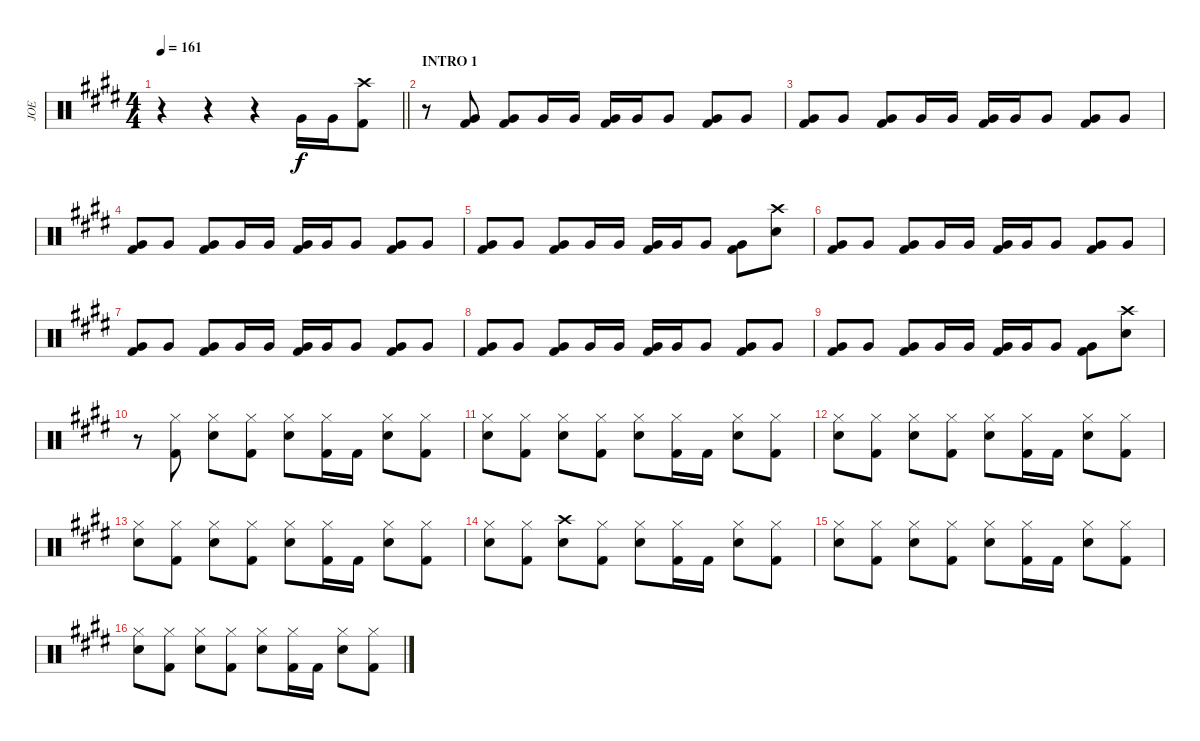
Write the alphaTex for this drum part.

\track ("JOE" "JOE") {instrument percussion}
\staff {score}
\articulation defaults
\ts (4 4)
\tempo 161
\clef neutral
\barLineRight lightlight
\ks e
r.4{dy f} r.4 r.4 "Very Low Tom (hit)".16 "Very Low Tom (hit)".16 ("Crash high (hit)" "Kick (hit) 2").8 |
\section ("" "INTRO 1")
r.8 ("Very Low Tom (hit)" "Kick (hit) 2").8 ("Very Low Tom (hit)" "Kick (hit) 2").8 "Very Low Tom (hit)".16 "Very Low Tom (hit)".16 ("Very Low Tom (hit)" "Kick (hit) 2").16 "Very Low Tom (hit)".16 "Very Low Tom (hit)".8 ("Very Low Tom (hit)" "Kick (hit) 2").8 "Very Low Tom (hit)".8 |
("Very Low Tom (hit)" "Kick (hit) 2").8 "Very Low Tom (hit)".8 ("Very Low Tom (hit)" "Kick (hit) 2").8 "Very Low Tom (hit)".16 "Very Low Tom (hit)".16 ("Very Low Tom (hit)" "Kick (hit) 2").16 "Very Low Tom (hit)".16 "Very Low Tom (hit)".8 ("Very Low Tom (hit)" "Kick (hit) 2").8 "Very Low Tom (hit)".8 |
("Very Low Tom (hit)" "Kick (hit) 2").8 "Very Low Tom (hit)".8 ("Very Low Tom (hit)" "Kick (hit) 2").8 "Very Low Tom (hit)".16 "Very Low Tom (hit)".16 ("Very Low Tom (hit)" "Kick (hit) 2").16 "Very Low Tom (hit)".16 "Very Low Tom (hit)".8 ("Very Low Tom (hit)" "Kick (hit) 2").8 "Very Low Tom (hit)".8 |
("Very Low Tom (hit)" "Kick (hit) 2").8 "Very Low Tom (hit)".8 ("Very Low Tom (hit)" "Kick (hit) 2").8 "Very Low Tom (hit)".16 "Very Low Tom (hit)".16 ("Very Low Tom (hit)" "Kick (hit) 2").16 "Very Low Tom (hit)".16 "Very Low Tom (hit)".8 ("Very Low Tom (hit)" "Kick (hit) 2").8 ("Crash high (hit)" "Snare (hit) 2").8 |
("Very Low Tom (hit)" "Kick (hit) 2").8 "Very Low Tom (hit)".8 ("Very Low Tom (hit)" "Kick (hit) 2").8 "Very Low Tom (hit)".16 "Very Low Tom (hit)".16 ("Very Low Tom (hit)" "Kick (hit) 2").16 "Very Low Tom (hit)".16 "Very Low Tom (hit)".8 ("Very Low Tom (hit)" "Kick (hit) 2").8 "Very Low Tom (hit)".8 |
("Very Low Tom (hit)" "Kick (hit) 2").8 "Very Low Tom (hit)".8 ("Very Low Tom (hit)" "Kick (hit) 2").8 "Very Low Tom (hit)".16 "Very Low Tom (hit)".16 ("Very Low Tom (hit)" "Kick (hit) 2").16 "Very Low Tom (hit)".16 "Very Low Tom (hit)".8 ("Very Low Tom (hit)" "Kick (hit) 2").8 "Very Low Tom (hit)".8 |
("Very Low Tom (hit)" "Kick (hit) 2").8 "Very Low Tom (hit)".8 ("Very Low Tom (hit)" "Kick (hit) 2").8 "Very Low Tom (hit)".16 "Very Low Tom (hit)".16 ("Very Low Tom (hit)" "Kick (hit) 2").16 "Very Low Tom (hit)".16 "Very Low Tom (hit)".8 ("Very Low Tom (hit)" "Kick (hit) 2").8 "Very Low Tom (hit)".8 |
("Very Low Tom (hit)" "Kick (hit) 2").8 "Very Low Tom (hit)".8 ("Very Low Tom (hit)" "Kick (hit) 2").8 "Very Low Tom (hit)".16 "Very Low Tom (hit)".16 ("Very Low Tom (hit)" "Kick (hit) 2").16 "Very Low Tom (hit)".16 "Very Low Tom (hit)".8 ("Very Low Tom (hit)" "Kick (hit) 2").8 ("Crash high (hit)" "Snare (hit) 2").8 |
r.8 ("Hi-Hat (closed)" "Kick (hit) 2").8 ("Hi-Hat (closed)" "Snare (hit) 2").8 ("Hi-Hat (closed)" "Kick (hit) 2").8 ("Hi-Hat (closed)" "Snare (hit) 2").8 ("Hi-Hat (closed)" "Kick (hit) 2").16 "Kick (hit) 2".16 ("Hi-Hat (closed)" "Snare (hit) 2").8 ("Hi-Hat (closed)" "Kick (hit) 2").8 |
("Hi-Hat (closed)" "Snare (hit) 2").8 ("Hi-Hat (closed)" "Kick (hit) 2").8 ("Hi-Hat (closed)" "Snare (hit) 2").8 ("Hi-Hat (closed)" "Kick (hit) 2").8 ("Hi-Hat (closed)" "Snare (hit) 2").8 ("Hi-Hat (closed)" "Kick (hit) 2").16 "Kick (hit) 2".16 ("Hi-Hat (closed)" "Snare (hit) 2").8 ("Hi-Hat (closed)" "Kick (hit) 2").8 |
("Hi-Hat (closed)" "Snare (hit) 2").8 ("Hi-Hat (closed)" "Kick (hit) 2").8 ("Hi-Hat (closed)" "Snare (hit) 2").8 ("Hi-Hat (closed)" "Kick (hit) 2").8 ("Hi-Hat (closed)" "Snare (hit) 2").8 ("Hi-Hat (closed)" "Kick (hit) 2").16 "Kick (hit) 2".16 ("Hi-Hat (closed)" "Snare (hit) 2").8 ("Hi-Hat (closed)" "Kick (hit) 2").8 |
("Hi-Hat (closed)" "Snare (hit) 2").8 ("Hi-Hat (closed)" "Kick (hit) 2").8 ("Hi-Hat (closed)" "Snare (hit) 2").8 ("Hi-Hat (closed)" "Kick (hit) 2").8 ("Hi-Hat (closed)" "Snare (hit) 2").8 ("Hi-Hat (closed)" "Kick (hit) 2").16 "Kick (hit) 2".16 ("Hi-Hat (closed)" "Snare (hit) 2").8 ("Hi-Hat (closed)" "Kick (hit) 2").8 |
("Hi-Hat (closed)" "Snare (hit) 2").8 ("Hi-Hat (closed)" "Kick (hit) 2").8 ("Crash high (hit)" "Snare (hit) 2").8 ("Hi-Hat (closed)" "Kick (hit) 2").8 ("Hi-Hat (closed)" "Snare (hit) 2").8 ("Hi-Hat (closed)" "Kick (hit) 2").16 "Kick (hit) 2".16 ("Hi-Hat (closed)" "Snare (hit) 2").8 ("Hi-Hat (closed)" "Kick (hit) 2").8 |
("Hi-Hat (closed)" "Snare (hit) 2").8 ("Hi-Hat (closed)" "Kick (hit) 2").8 ("Hi-Hat (closed)" "Snare (hit) 2").8 ("Hi-Hat (closed)" "Kick (hit) 2").8 ("Hi-Hat (closed)" "Snare (hit) 2").8 ("Hi-Hat (closed)" "Kick (hit) 2").16 "Kick (hit) 2".16 ("Hi-Hat (closed)" "Snare (hit) 2").8 ("Hi-Hat (closed)" "Kick (hit) 2").8 |
("Hi-Hat (closed)" "Snare (hit) 2").8 ("Hi-Hat (closed)" "Kick (hit) 2").8 ("Hi-Hat (closed)" "Snare (hit) 2").8 ("Hi-Hat (closed)" "Kick (hit) 2").8 ("Hi-Hat (closed)" "Snare (hit) 2").8 ("Hi-Hat (closed)" "Kick (hit) 2").16 "Kick (hit) 2".16 ("Hi-Hat (closed)" "Snare (hit) 2").8 ("Hi-Hat (closed)" "Kick (hit) 2").8
